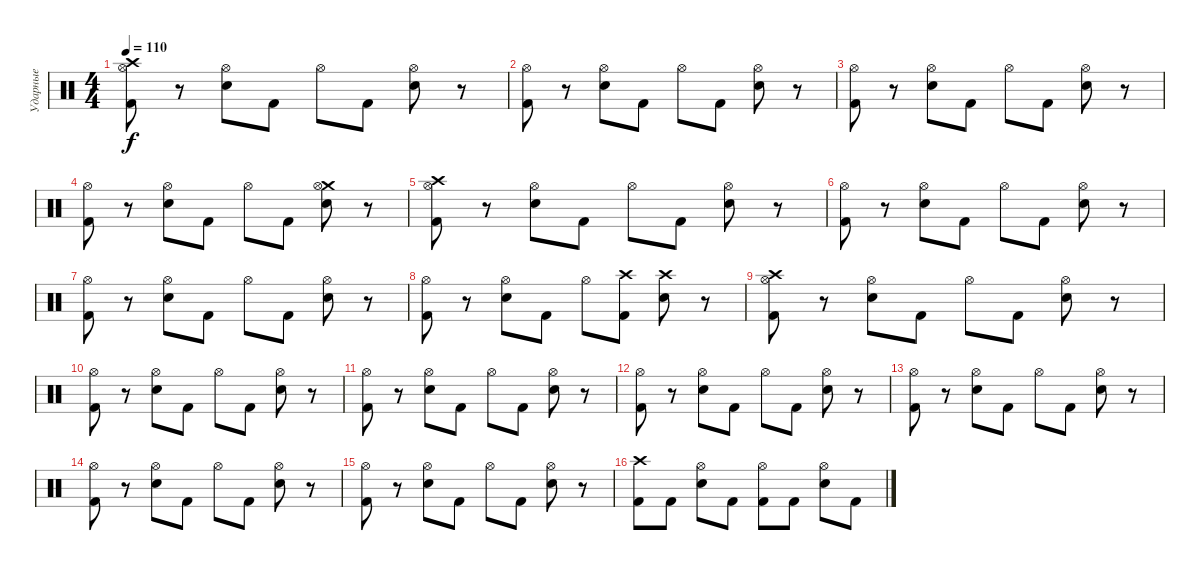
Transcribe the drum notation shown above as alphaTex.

\track ("Ударные" "Ударные") {instrument percussion}
\staff {score}
\articulation defaults
\ts (4 4)
\tempo 110
\clef neutral
\ks c
("Crash high (hit)" "Kick (hit) 2" "Hi-Hat (open)").8{dy f} r.8 ("Electric Snare (hit)" "Hi-Hat (open)").8 "Kick (hit) 2".8 "Hi-Hat (open)".8 "Kick (hit) 2".8 ("Electric Snare (hit)" "Hi-Hat (open)").8 r.8 |
("Kick (hit) 2" "Hi-Hat (open)").8 r.8 ("Electric Snare (hit)" "Hi-Hat (open)").8 "Kick (hit) 2".8 "Hi-Hat (open)".8 "Kick (hit) 2".8 ("Electric Snare (hit)" "Hi-Hat (open)").8 r.8 |
("Kick (hit) 2" "Hi-Hat (open)").8 r.8 ("Electric Snare (hit)" "Hi-Hat (open)").8 "Kick (hit) 2".8 "Hi-Hat (open)".8 "Kick (hit) 2".8 ("Electric Snare (hit)" "Hi-Hat (open)").8 r.8 |
("Kick (hit) 2" "Hi-Hat (open)").8 r.8 ("Electric Snare (hit)" "Hi-Hat (open)").8 "Kick (hit) 2".8 "Hi-Hat (open)".8 "Kick (hit) 2".8 ("Electric Snare (hit)" "Crash medium (hit)" "Hi-Hat (open)").8 r.8 |
("Crash high (hit)" "Kick (hit) 2" "Hi-Hat (open)").8 r.8 ("Electric Snare (hit)" "Hi-Hat (open)").8 "Kick (hit) 2".8 "Hi-Hat (open)".8 "Kick (hit) 2".8 ("Electric Snare (hit)" "Hi-Hat (open)").8 r.8 |
("Kick (hit) 2" "Hi-Hat (open)").8 r.8 ("Electric Snare (hit)" "Hi-Hat (open)").8 "Kick (hit) 2".8 "Hi-Hat (open)".8 "Kick (hit) 2".8 ("Electric Snare (hit)" "Hi-Hat (open)").8 r.8 |
("Kick (hit) 2" "Hi-Hat (open)").8 r.8 ("Electric Snare (hit)" "Hi-Hat (open)").8 "Kick (hit) 2".8 "Hi-Hat (open)".8 "Kick (hit) 2".8 ("Electric Snare (hit)" "Hi-Hat (open)").8 r.8 |
("Kick (hit) 2" "Hi-Hat (open)").8 r.8 ("Electric Snare (hit)" "Hi-Hat (open)").8 "Kick (hit) 2".8 "Hi-Hat (open)".8 ("Kick (hit) 2" "Crash high (hit)").8 ("Electric Snare (hit)" "Crash high (hit)").8 r.8 |
("Crash high (hit)" "Kick (hit) 2" "Hi-Hat (open)").8 r.8 ("Electric Snare (hit)" "Hi-Hat (open)").8 "Kick (hit) 2".8 "Hi-Hat (open)".8 "Kick (hit) 2".8 ("Electric Snare (hit)" "Hi-Hat (open)").8 r.8 |
("Kick (hit) 2" "Hi-Hat (open)").8 r.8 ("Electric Snare (hit)" "Hi-Hat (open)").8 "Kick (hit) 2".8 "Hi-Hat (open)".8 "Kick (hit) 2".8 ("Electric Snare (hit)" "Hi-Hat (open)").8 r.8 |
("Kick (hit) 2" "Hi-Hat (open)").8 r.8 ("Electric Snare (hit)" "Hi-Hat (open)").8 "Kick (hit) 2".8 "Hi-Hat (open)".8 "Kick (hit) 2".8 ("Electric Snare (hit)" "Hi-Hat (open)").8 r.8 |
("Kick (hit) 2" "Hi-Hat (open)").8 r.8 ("Electric Snare (hit)" "Hi-Hat (open)").8 "Kick (hit) 2".8 "Hi-Hat (open)".8 "Kick (hit) 2".8 ("Electric Snare (hit)" "Hi-Hat (open)").8 r.8 |
("Kick (hit) 2" "Hi-Hat (open)").8 r.8 ("Electric Snare (hit)" "Hi-Hat (open)").8 "Kick (hit) 2".8 "Hi-Hat (open)".8 "Kick (hit) 2".8 ("Electric Snare (hit)" "Hi-Hat (open)").8 r.8 |
("Kick (hit) 2" "Hi-Hat (open)").8 r.8 ("Electric Snare (hit)" "Hi-Hat (open)").8 "Kick (hit) 2".8 "Hi-Hat (open)".8 "Kick (hit) 2".8 ("Electric Snare (hit)" "Hi-Hat (open)").8 r.8 |
("Kick (hit) 2" "Hi-Hat (open)").8 r.8 ("Electric Snare (hit)" "Hi-Hat (open)").8 "Kick (hit) 2".8 "Hi-Hat (open)".8 "Kick (hit) 2".8 ("Electric Snare (hit)" "Hi-Hat (open)").8 r.8 |
("Kick (hit) 2" "Crash high (hit)").8 "Kick (hit) 2".8 ("Electric Snare (hit)" "Hi-Hat (open)").8 "Kick (hit) 2".8 ("Kick (hit) 2" "Hi-Hat (open)").8 "Kick (hit) 2".8 ("Electric Snare (hit)" "Hi-Hat (open)").8 "Kick (hit) 2".8
